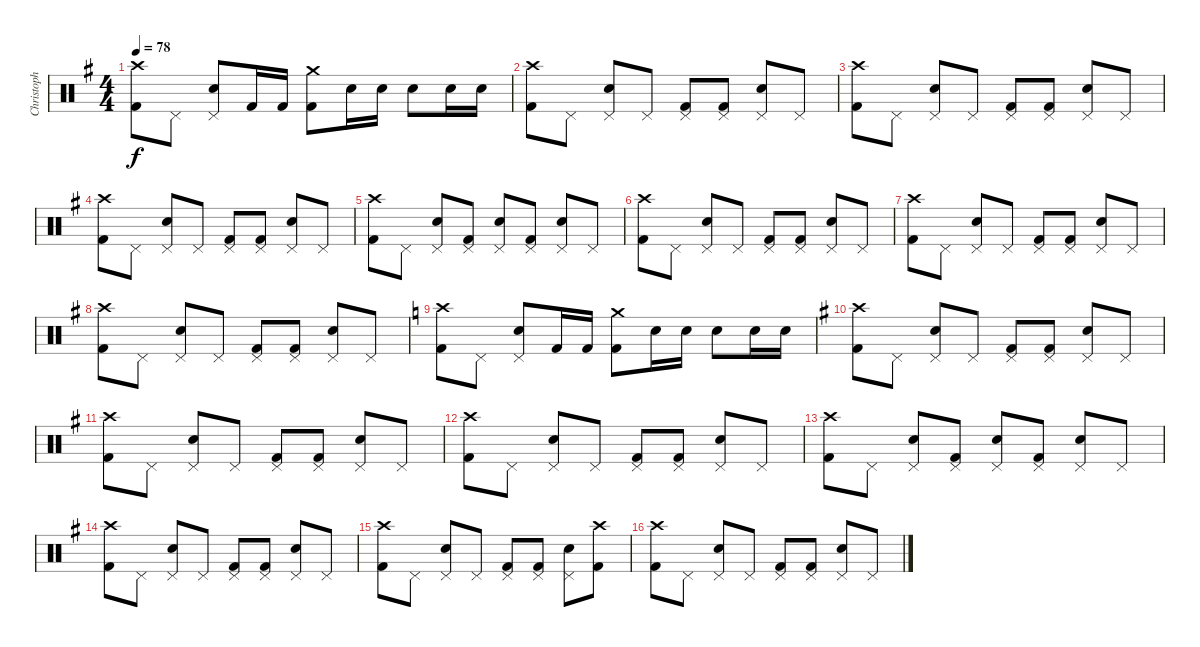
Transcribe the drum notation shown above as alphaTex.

\track ("Christoph" "Christoph") {instrument percussion}
\staff {score}
\articulation defaults
\ts (4 4)
\tempo 78
\clef neutral
\ks g
("Crash high (hit)" "Kick (hit) 2").8{dy f} "Pedal Hi-Hat (hit)".8 ("Pedal Hi-Hat (hit)" "Snare (hit) 2").8 "Kick (hit) 2".16 "Kick (hit) 2".16 ("Crash medium (hit)" "Kick (hit) 2").8 "Snare (hit) 2".16 "Snare (hit) 2".16 "Snare (hit) 2".8 "Snare (hit) 2".16 "Snare (hit) 2".16 |
("Crash high (hit)" "Kick (hit) 2").8 "Pedal Hi-Hat (hit)".8 ("Pedal Hi-Hat (hit)" "Snare (hit) 2").8 "Pedal Hi-Hat (hit)".8 ("Pedal Hi-Hat (hit)" "Kick (hit) 2").8 ("Pedal Hi-Hat (hit)" "Kick (hit) 2").8 ("Pedal Hi-Hat (hit)" "Snare (hit) 2").8 "Pedal Hi-Hat (hit)".8 |
("Crash high (hit)" "Kick (hit) 2").8 "Pedal Hi-Hat (hit)".8 ("Pedal Hi-Hat (hit)" "Snare (hit) 2").8 "Pedal Hi-Hat (hit)".8 ("Pedal Hi-Hat (hit)" "Kick (hit) 2").8 ("Pedal Hi-Hat (hit)" "Kick (hit) 2").8 ("Pedal Hi-Hat (hit)" "Snare (hit) 2").8 "Pedal Hi-Hat (hit)".8 |
("Crash high (hit)" "Kick (hit) 2").8 "Pedal Hi-Hat (hit)".8 ("Pedal Hi-Hat (hit)" "Snare (hit) 2").8 "Pedal Hi-Hat (hit)".8 ("Pedal Hi-Hat (hit)" "Kick (hit) 2").8 ("Pedal Hi-Hat (hit)" "Kick (hit) 2").8 ("Pedal Hi-Hat (hit)" "Snare (hit) 2").8 "Pedal Hi-Hat (hit)".8 |
("Crash high (hit)" "Kick (hit) 2").8 "Pedal Hi-Hat (hit)".8 ("Pedal Hi-Hat (hit)" "Snare (hit) 2").8 ("Pedal Hi-Hat (hit)" "Kick (hit) 2").8 ("Pedal Hi-Hat (hit)" "Snare (hit) 2").8 ("Pedal Hi-Hat (hit)" "Kick (hit) 2").8 ("Pedal Hi-Hat (hit)" "Snare (hit) 2").8 "Pedal Hi-Hat (hit)".8 |
("Crash high (hit)" "Kick (hit) 2").8 "Pedal Hi-Hat (hit)".8 ("Pedal Hi-Hat (hit)" "Snare (hit) 2").8 "Pedal Hi-Hat (hit)".8 ("Pedal Hi-Hat (hit)" "Kick (hit) 2").8 ("Pedal Hi-Hat (hit)" "Kick (hit) 2").8 ("Pedal Hi-Hat (hit)" "Snare (hit) 2").8 "Pedal Hi-Hat (hit)".8 |
("Crash high (hit)" "Kick (hit) 2").8 "Pedal Hi-Hat (hit)".8 ("Pedal Hi-Hat (hit)" "Snare (hit) 2").8 "Pedal Hi-Hat (hit)".8 ("Pedal Hi-Hat (hit)" "Kick (hit) 2").8 ("Pedal Hi-Hat (hit)" "Kick (hit) 2").8 ("Pedal Hi-Hat (hit)" "Snare (hit) 2").8 "Pedal Hi-Hat (hit)".8 |
("Crash high (hit)" "Kick (hit) 2").8 "Pedal Hi-Hat (hit)".8 ("Pedal Hi-Hat (hit)" "Snare (hit) 2").8 "Pedal Hi-Hat (hit)".8 ("Pedal Hi-Hat (hit)" "Kick (hit) 2").8 ("Pedal Hi-Hat (hit)" "Kick (hit) 2").8 ("Pedal Hi-Hat (hit)" "Snare (hit) 2").8 "Pedal Hi-Hat (hit)".8 |
\ks c
("Crash high (hit)" "Kick (hit) 2").8 "Pedal Hi-Hat (hit)".8 ("Pedal Hi-Hat (hit)" "Snare (hit) 2").8 "Kick (hit) 2".16 "Kick (hit) 2".16 ("Crash medium (hit)" "Kick (hit) 2").8 "Snare (hit) 2".16 "Snare (hit) 2".16 "Snare (hit) 2".8 "Snare (hit) 2".16 "Snare (hit) 2".16 |
\ks g
("Crash high (hit)" "Kick (hit) 2").8 "Pedal Hi-Hat (hit)".8 ("Pedal Hi-Hat (hit)" "Snare (hit) 2").8 "Pedal Hi-Hat (hit)".8 ("Pedal Hi-Hat (hit)" "Kick (hit) 2").8 ("Pedal Hi-Hat (hit)" "Kick (hit) 2").8 ("Pedal Hi-Hat (hit)" "Snare (hit) 2").8 "Pedal Hi-Hat (hit)".8 |
("Crash high (hit)" "Kick (hit) 2").8 "Pedal Hi-Hat (hit)".8 ("Pedal Hi-Hat (hit)" "Snare (hit) 2").8 "Pedal Hi-Hat (hit)".8 ("Pedal Hi-Hat (hit)" "Kick (hit) 2").8 ("Pedal Hi-Hat (hit)" "Kick (hit) 2").8 ("Pedal Hi-Hat (hit)" "Snare (hit) 2").8 "Pedal Hi-Hat (hit)".8 |
("Crash high (hit)" "Kick (hit) 2").8 "Pedal Hi-Hat (hit)".8 ("Pedal Hi-Hat (hit)" "Snare (hit) 2").8 "Pedal Hi-Hat (hit)".8 ("Pedal Hi-Hat (hit)" "Kick (hit) 2").8 ("Pedal Hi-Hat (hit)" "Kick (hit) 2").8 ("Pedal Hi-Hat (hit)" "Snare (hit) 2").8 "Pedal Hi-Hat (hit)".8 |
("Crash high (hit)" "Kick (hit) 2").8 "Pedal Hi-Hat (hit)".8 ("Pedal Hi-Hat (hit)" "Snare (hit) 2").8 ("Pedal Hi-Hat (hit)" "Kick (hit) 2").8 ("Pedal Hi-Hat (hit)" "Snare (hit) 2").8 ("Pedal Hi-Hat (hit)" "Kick (hit) 2").8 ("Pedal Hi-Hat (hit)" "Snare (hit) 2").8 "Pedal Hi-Hat (hit)".8 |
("Crash high (hit)" "Kick (hit) 2").8 "Pedal Hi-Hat (hit)".8 ("Pedal Hi-Hat (hit)" "Snare (hit) 2").8 "Pedal Hi-Hat (hit)".8 ("Pedal Hi-Hat (hit)" "Kick (hit) 2").8 ("Pedal Hi-Hat (hit)" "Kick (hit) 2").8 ("Pedal Hi-Hat (hit)" "Snare (hit) 2").8 "Pedal Hi-Hat (hit)".8 |
("Crash high (hit)" "Kick (hit) 2").8 "Pedal Hi-Hat (hit)".8 ("Pedal Hi-Hat (hit)" "Snare (hit) 2").8 "Pedal Hi-Hat (hit)".8 ("Pedal Hi-Hat (hit)" "Kick (hit) 2").8 ("Pedal Hi-Hat (hit)" "Kick (hit) 2").8 ("Pedal Hi-Hat (hit)" "Snare (hit) 2").8 ("Crash high (hit)" "Kick (hit) 2").8 |
("Crash high (hit)" "Kick (hit) 2").8 "Pedal Hi-Hat (hit)".8 ("Pedal Hi-Hat (hit)" "Snare (hit) 2").8 "Pedal Hi-Hat (hit)".8 ("Pedal Hi-Hat (hit)" "Kick (hit) 2").8 ("Pedal Hi-Hat (hit)" "Kick (hit) 2").8 ("Pedal Hi-Hat (hit)" "Snare (hit) 2").8 "Pedal Hi-Hat (hit)".8
